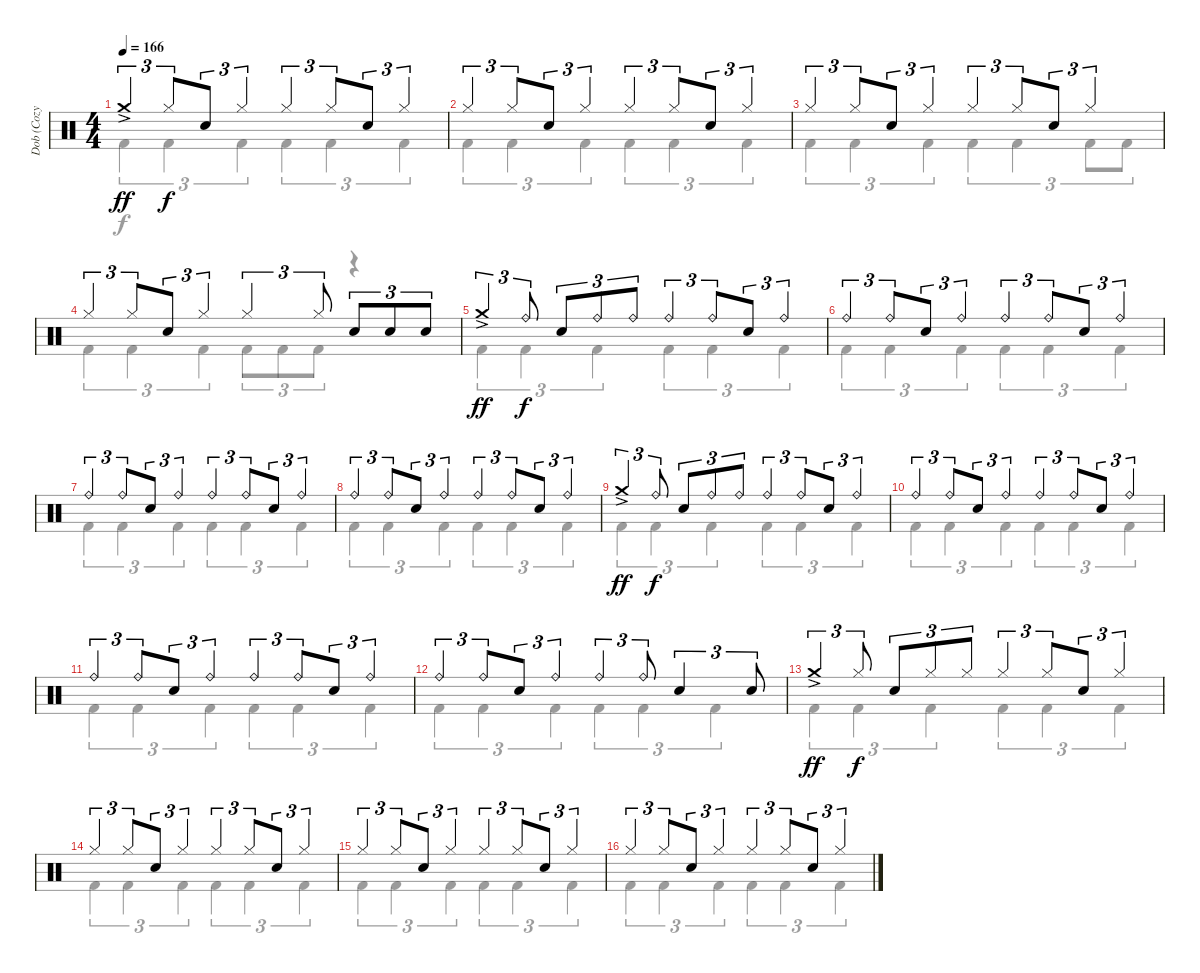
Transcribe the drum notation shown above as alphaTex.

\track ("Dob (Cozy Powell)" "Dob (Cozy ") {instrument percussion}
\staff {score}
\articulation defaults
\voice
\ts (4 4)
\tempo 166
\clef neutral
\ks c "Crash medium (hit)"{ac}.4{tu (3 2) dy ff} "Hi-Hat (closed)".8{tu (3 2) dy f beam merge} "Electric Snare (hit)".8{tu (3 2)} "Hi-Hat (closed)".4{tu (3 2)} "Hi-Hat (closed)".4{tu (3 2)} "Hi-Hat (closed)".8{tu (3 2) beam merge} "Electric Snare (hit)".8{tu (3 2)} "Hi-Hat (closed)".4{tu (3 2)}
|
"Hi-Hat (closed)".4{tu (3 2)} "Hi-Hat (closed)".8{tu (3 2) beam merge} "Electric Snare (hit)".8{tu (3 2)} "Hi-Hat (closed)".4{tu (3 2)} "Hi-Hat (closed)".4{tu (3 2)} "Hi-Hat (closed)".8{tu (3 2) beam merge} "Electric Snare (hit)".8{tu (3 2)} "Hi-Hat (closed)".4{tu (3 2)} |
"Hi-Hat (closed)".4{tu (3 2)} "Hi-Hat (closed)".8{tu (3 2) beam merge} "Electric Snare (hit)".8{tu (3 2)} "Hi-Hat (closed)".4{tu (3 2)} "Hi-Hat (closed)".4{tu (3 2)} "Hi-Hat (closed)".8{tu (3 2) beam merge} "Electric Snare (hit)".8{tu (3 2)} "Hi-Hat (closed)".4{tu (3 2)} |
"Hi-Hat (closed)".4{tu (3 2)} "Hi-Hat (closed)".8{tu (3 2) beam merge} "Electric Snare (hit)".8{tu (3 2)} "Hi-Hat (closed)".4{tu (3 2)} "Hi-Hat (closed)".4{tu (3 2)} "Hi-Hat (closed)".8{tu (3 2)} "Electric Snare (hit)".8{tu (3 2)} "Electric Snare (hit)".8{tu (3 2)} "Electric Snare (hit)".8{tu (3 2)} |
"Crash medium (hit)"{ac}.4{tu (3 2) dy ff} "Ride (bell)".8{tu (3 2) dy f} "Electric Snare (hit)".8{tu (3 2)} "Ride (bell)".8{tu (3 2)} "Ride (bell)".8{tu (3 2)} "Ride (bell)".4{tu (3 2)} "Ride (bell)".8{tu (3 2) beam merge} "Electric Snare (hit)".8{tu (3 2)} "Ride (bell)".4{tu (3 2)} |
"Ride (bell)".4{tu (3 2)} "Ride (bell)".8{tu (3 2) beam merge} "Electric Snare (hit)".8{tu (3 2)} "Ride (bell)".4{tu (3 2)} "Ride (bell)".4{tu (3 2)} "Ride (bell)".8{tu (3 2) beam merge} "Electric Snare (hit)".8{tu (3 2)} "Ride (bell)".4{tu (3 2)} |
"Ride (bell)".4{tu (3 2)} "Ride (bell)".8{tu (3 2) beam merge} "Electric Snare (hit)".8{tu (3 2)} "Ride (bell)".4{tu (3 2)} "Ride (bell)".4{tu (3 2)} "Ride (bell)".8{tu (3 2) beam merge} "Electric Snare (hit)".8{tu (3 2)} "Ride (bell)".4{tu (3 2)} |
"Ride (bell)".4{tu (3 2)} "Ride (bell)".8{tu (3 2) beam merge} "Electric Snare (hit)".8{tu (3 2)} "Ride (bell)".4{tu (3 2)} "Ride (bell)".4{tu (3 2)} "Ride (bell)".8{tu (3 2) beam merge} "Electric Snare (hit)".8{tu (3 2)} "Ride (bell)".4{tu (3 2)} |
"Crash medium (hit)"{ac}.4{tu (3 2) dy ff} "Ride (bell)".8{tu (3 2) dy f} "Electric Snare (hit)".8{tu (3 2)} "Ride (bell)".8{tu (3 2)} "Ride (bell)".8{tu (3 2)} "Ride (bell)".4{tu (3 2)} "Ride (bell)".8{tu (3 2) beam merge} "Electric Snare (hit)".8{tu (3 2)} "Ride (bell)".4{tu (3 2)} |
"Ride (bell)".4{tu (3 2)} "Ride (bell)".8{tu (3 2) beam merge} "Electric Snare (hit)".8{tu (3 2)} "Ride (bell)".4{tu (3 2)} "Ride (bell)".4{tu (3 2)} "Ride (bell)".8{tu (3 2) beam merge} "Electric Snare (hit)".8{tu (3 2)} "Ride (bell)".4{tu (3 2)} |
"Ride (bell)".4{tu (3 2)} "Ride (bell)".8{tu (3 2) beam merge} "Electric Snare (hit)".8{tu (3 2)} "Ride (bell)".4{tu (3 2)} "Ride (bell)".4{tu (3 2)} "Ride (bell)".8{tu (3 2) beam merge} "Electric Snare (hit)".8{tu (3 2)} "Ride (bell)".4{tu (3 2)} |
"Ride (bell)".4{tu (3 2)} "Ride (bell)".8{tu (3 2) beam merge} "Electric Snare (hit)".8{tu (3 2)} "Ride (bell)".4{tu (3 2)} "Ride (bell)".4{tu (3 2)} "Ride (bell)".8{tu (3 2)} "Electric Snare (hit)".4{tu (3 2)} "Electric Snare (hit)".8{tu (3 2)} |
"Crash medium (hit)"{ac}.4{tu (3 2) dy ff} "Hi-Hat (closed)".8{tu (3 2) dy f} "Electric Snare (hit)".8{tu (3 2)} "Hi-Hat (closed)".8{tu (3 2)} "Hi-Hat (closed)".8{tu (3 2)} "Hi-Hat (closed)".4{tu (3 2)} "Hi-Hat (closed)".8{tu (3 2) beam merge} "Electric Snare (hit)".8{tu (3 2)} "Hi-Hat (closed)".4{tu (3 2)} |
"Hi-Hat (closed)".4{tu (3 2)} "Hi-Hat (closed)".8{tu (3 2) beam merge} "Electric Snare (hit)".8{tu (3 2)} "Hi-Hat (closed)".4{tu (3 2)} "Hi-Hat (closed)".4{tu (3 2)} "Hi-Hat (closed)".8{tu (3 2) beam merge} "Electric Snare (hit)".8{tu (3 2)} "Hi-Hat (closed)".4{tu (3 2)} |
"Hi-Hat (closed)".4{tu (3 2)} "Hi-Hat (closed)".8{tu (3 2) beam merge} "Electric Snare (hit)".8{tu (3 2)} "Hi-Hat (closed)".4{tu (3 2)} "Hi-Hat (closed)".4{tu (3 2)} "Hi-Hat (closed)".8{tu (3 2) beam merge} "Electric Snare (hit)".8{tu (3 2)} "Hi-Hat (closed)".4{tu (3 2)} |
"Hi-Hat (closed)".4{tu (3 2)} "Hi-Hat (closed)".8{tu (3 2) beam merge} "Electric Snare (hit)".8{tu (3 2)} "Hi-Hat (closed)".4{tu (3 2)} "Hi-Hat (closed)".4{tu (3 2)} "Hi-Hat (closed)".8{tu (3 2) beam merge} "Electric Snare (hit)".8{tu (3 2)} "Hi-Hat (closed)".4{tu (3 2)}
\voice
\clef neutral
\ottava regular
\simile none
\ks c "Kick (hit) 2".4{tu (3 2) dy f} "Kick (hit) 2".4{tu (3 2)} "Kick (hit) 2".4{tu (3 2)} "Kick (hit) 2".4{tu (3 2)} "Kick (hit) 2".4{tu (3 2)} "Kick (hit) 2".4{tu (3 2)}
|
"Kick (hit) 2".4{tu (3 2)} "Kick (hit) 2".4{tu (3 2)} "Kick (hit) 2".4{tu (3 2)} "Kick (hit) 2".4{tu (3 2)} "Kick (hit) 2".4{tu (3 2)} "Kick (hit) 2".4{tu (3 2)} |
"Kick (hit) 2".4{tu (3 2)} "Kick (hit) 2".4{tu (3 2)} "Kick (hit) 2".4{tu (3 2)} "Kick (hit) 2".4{tu (3 2)} "Kick (hit) 2".4{tu (3 2)} "Kick (hit) 2".8{tu (3 2)} "Kick (hit) 2".8{tu (3 2)} |
"Kick (hit) 2".4{tu (3 2)} "Kick (hit) 2".4{tu (3 2)} "Kick (hit) 2".4{tu (3 2)} "Kick (hit) 2".8{tu (3 2)} "Kick (hit) 2".8{tu (3 2)} "Kick (hit) 2".8{tu (3 2)} r.4 |
"Kick (hit) 2".4{tu (3 2)} "Kick (hit) 2".4{tu (3 2)} "Kick (hit) 2".4{tu (3 2)} "Kick (hit) 2".4{tu (3 2)} "Kick (hit) 2".4{tu (3 2)} "Kick (hit) 2".4{tu (3 2)} |
"Kick (hit) 2".4{tu (3 2)} "Kick (hit) 2".4{tu (3 2)} "Kick (hit) 2".4{tu (3 2)} "Kick (hit) 2".4{tu (3 2)} "Kick (hit) 2".4{tu (3 2)} "Kick (hit) 2".4{tu (3 2)} |
"Kick (hit) 2".4{tu (3 2)} "Kick (hit) 2".4{tu (3 2)} "Kick (hit) 2".4{tu (3 2)} "Kick (hit) 2".4{tu (3 2)} "Kick (hit) 2".4{tu (3 2)} "Kick (hit) 2".4{tu (3 2)} |
"Kick (hit) 2".4{tu (3 2)} "Kick (hit) 2".4{tu (3 2)} "Kick (hit) 2".4{tu (3 2)} "Kick (hit) 2".4{tu (3 2)} "Kick (hit) 2".4{tu (3 2)} "Kick (hit) 2".4{tu (3 2)} |
"Kick (hit) 2".4{tu (3 2)} "Kick (hit) 2".4{tu (3 2)} "Kick (hit) 2".4{tu (3 2)} "Kick (hit) 2".4{tu (3 2)} "Kick (hit) 2".4{tu (3 2)} "Kick (hit) 2".4{tu (3 2)} |
"Kick (hit) 2".4{tu (3 2)} "Kick (hit) 2".4{tu (3 2)} "Kick (hit) 2".4{tu (3 2)} "Kick (hit) 2".4{tu (3 2)} "Kick (hit) 2".4{tu (3 2)} "Kick (hit) 2".4{tu (3 2)} |
"Kick (hit) 2".4{tu (3 2)} "Kick (hit) 2".4{tu (3 2)} "Kick (hit) 2".4{tu (3 2)} "Kick (hit) 2".4{tu (3 2)} "Kick (hit) 2".4{tu (3 2)} "Kick (hit) 2".4{tu (3 2)} |
"Kick (hit) 2".4{tu (3 2)} "Kick (hit) 2".4{tu (3 2)} "Kick (hit) 2".4{tu (3 2)} "Kick (hit) 2".4{tu (3 2)} "Kick (hit) 2".4{tu (3 2)} "Kick (hit) 2".4{tu (3 2)} |
"Kick (hit) 2".4{tu (3 2)} "Kick (hit) 2".4{tu (3 2)} "Kick (hit) 2".4{tu (3 2)} "Kick (hit) 2".4{tu (3 2)} "Kick (hit) 2".4{tu (3 2)} "Kick (hit) 2".4{tu (3 2)} |
"Kick (hit) 2".4{tu (3 2)} "Kick (hit) 2".4{tu (3 2)} "Kick (hit) 2".4{tu (3 2)} "Kick (hit) 2".4{tu (3 2)} "Kick (hit) 2".4{tu (3 2)} "Kick (hit) 2".4{tu (3 2)} |
"Kick (hit) 2".4{tu (3 2)} "Kick (hit) 2".4{tu (3 2)} "Kick (hit) 2".4{tu (3 2)} "Kick (hit) 2".4{tu (3 2)} "Kick (hit) 2".4{tu (3 2)} "Kick (hit) 2".4{tu (3 2)} |
"Kick (hit) 2".4{tu (3 2)} "Kick (hit) 2".4{tu (3 2)} "Kick (hit) 2".4{tu (3 2)} "Kick (hit) 2".4{tu (3 2)} "Kick (hit) 2".4{tu (3 2)} "Kick (hit) 2".4{tu (3 2)}
